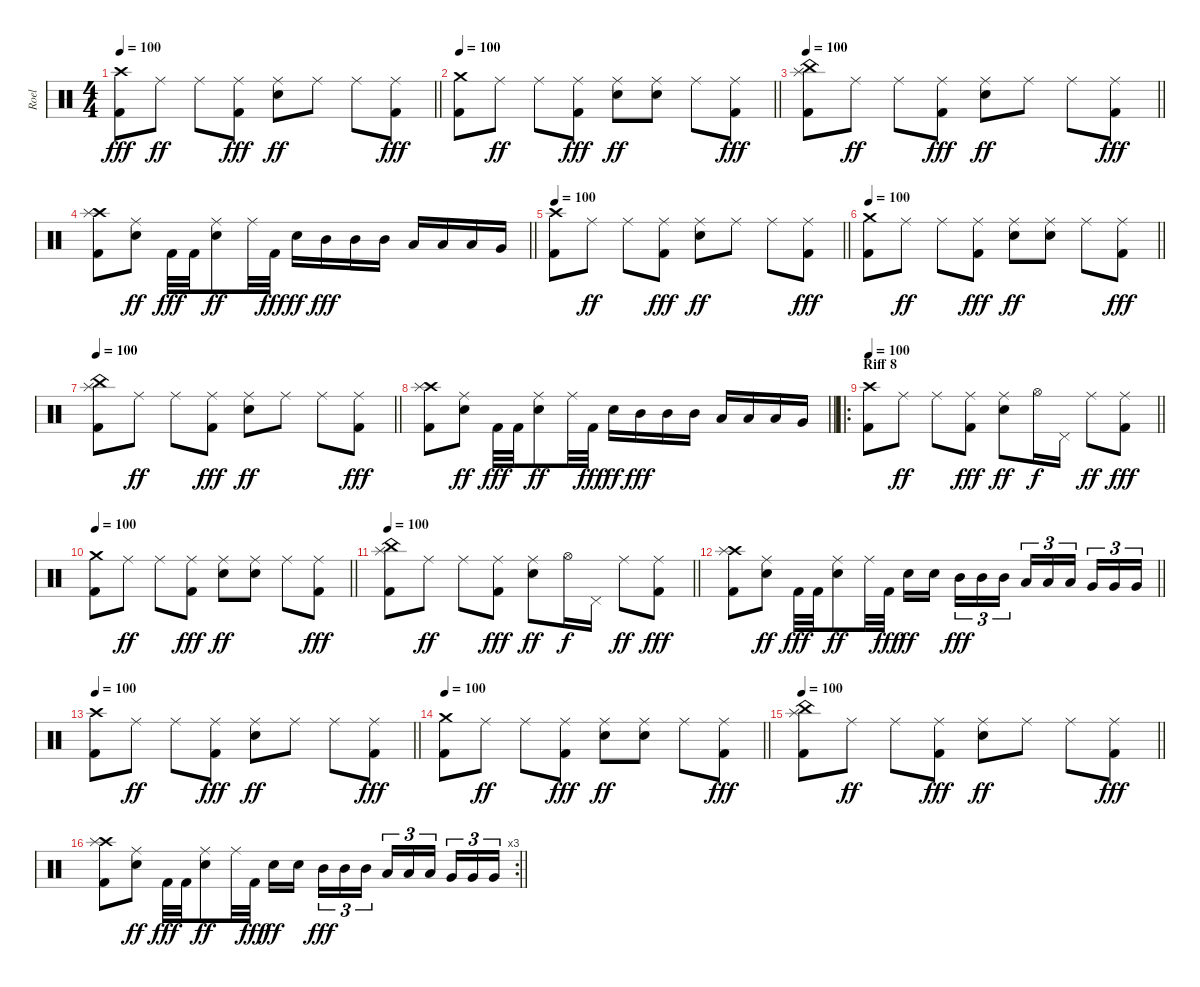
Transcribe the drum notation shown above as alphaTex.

\track ("Roel" "Roel") {instrument percussion}
\staff {score}
\articulation defaults
\ts (4 4)
\tempo 100
\clef neutral
\barLineRight lightlight
\ks c
("Crash high (hit)" "Kick (hit) 2").8{dy fff} "Ride (middle)".8{dy ff} "Ride (middle)".8 ("Ride (middle)" "Kick (hit) 2").8{dy fff} ("Ride (middle)" "Snare (hit) 2").8{dy ff} "Ride (middle)".8 "Ride (middle)".8 ("Ride (middle)" "Kick (hit) 2").8{dy fff} |
\tempo 100
\barLineRight lightlight
("Crash medium (hit)" "Kick (hit) 2").8 "Ride (middle)".8{dy ff} "Ride (middle)".8 ("Ride (middle)" "Kick (hit) 2").8{dy fff} ("Ride (middle)" "Snare (hit) 2").8{dy ff} ("Ride (middle)" "Snare (hit) 2").8 "Ride (middle)".8 ("Ride (middle)" "Kick (hit) 2").8{dy fff} |
\tempo 100
\barLineRight lightlight
("China (hit)" "Splash (hit)" "Kick (hit) 2").8 "Ride (middle)".8{dy ff} "Ride (middle)".8 ("Ride (middle)" "Kick (hit) 2").8{dy fff} ("Ride (middle)" "Snare (hit) 2").8{dy ff} "Ride (middle)".8 "Ride (middle)".8 ("Ride (middle)" "Kick (hit) 2").8{dy fff} |
\barLineRight lightlight
("Crash high (hit)" "Splash (hit)" "Kick (hit) 2").8 ("Ride (middle)" "Snare (hit) 2").8{dy ff} "Kick (hit) 2".32{dy fff} "Kick (hit) 2".32 ("Ride (middle)" "Snare (hit) 2").8{dy ff} "Ride (middle)".32 "Kick (hit) 2".32{dy fff} "Snare (hit) 2".16{dy ff} "Mid Tom (hit)".16{dy fff} "Mid Tom (hit)".16 "Mid Tom (hit)".16 "Low Tom (hit)".16 "Low Tom (hit)".16 "Low Tom (hit)".16 "Very Low Tom (hit)".16 |
\tempo 100
\barLineRight lightlight
("Crash high (hit)" "Kick (hit) 2").8 "Ride (middle)".8{dy ff} "Ride (middle)".8 ("Ride (middle)" "Kick (hit) 2").8{dy fff} ("Ride (middle)" "Snare (hit) 2").8{dy ff} "Ride (middle)".8 "Ride (middle)".8 ("Ride (middle)" "Kick (hit) 2").8{dy fff} |
\tempo 100
\barLineRight lightlight
("Crash medium (hit)" "Kick (hit) 2").8 "Ride (middle)".8{dy ff} "Ride (middle)".8 ("Ride (middle)" "Kick (hit) 2").8{dy fff} ("Ride (middle)" "Snare (hit) 2").8{dy ff} ("Ride (middle)" "Snare (hit) 2").8 "Ride (middle)".8 ("Ride (middle)" "Kick (hit) 2").8{dy fff} |
\tempo 100
\barLineRight lightlight
("China (hit)" "Splash (hit)" "Kick (hit) 2").8 "Ride (middle)".8{dy ff} "Ride (middle)".8 ("Ride (middle)" "Kick (hit) 2").8{dy fff} ("Ride (middle)" "Snare (hit) 2").8{dy ff} "Ride (middle)".8 "Ride (middle)".8 ("Ride (middle)" "Kick (hit) 2").8{dy fff} |
\barLineRight lightlight
("Crash high (hit)" "Splash (hit)" "Kick (hit) 2").8 ("Ride (middle)" "Snare (hit) 2").8{dy ff} "Kick (hit) 2".32{dy fff} "Kick (hit) 2".32 ("Ride (middle)" "Snare (hit) 2").8{dy ff} "Ride (middle)".32 "Kick (hit) 2".32{dy fff} "Snare (hit) 2".16{dy ff} "Mid Tom (hit)".16{dy fff} "Mid Tom (hit)".16 "Mid Tom (hit)".16 "Low Tom (hit)".16 "Low Tom (hit)".16 "Low Tom (hit)".16 "Very Low Tom (hit)".16 |
\ro
\section ("" "Riff 8")
\tempo 100
\barLineRight lightlight
("Crash high (hit)" "Kick (hit) 2").8 "Ride (middle)".8{dy ff} "Ride (middle)".8 ("Ride (middle)" "Kick (hit) 2").8{dy fff} ("Ride (middle)" "Snare (hit) 2").8{dy ff} "Hi-Hat (open)".16{dy f} "Pedal Hi-Hat (hit)".16 "Ride (middle)".8{dy ff} ("Ride (middle)" "Kick (hit) 2").8{dy fff} |
\tempo 100
\barLineRight lightlight
("Crash medium (hit)" "Kick (hit) 2").8 "Ride (middle)".8{dy ff} "Ride (middle)".8 ("Ride (middle)" "Kick (hit) 2").8{dy fff} ("Ride (middle)" "Snare (hit) 2").8{dy ff} ("Ride (middle)" "Snare (hit) 2").8 "Ride (middle)".8 ("Ride (middle)" "Kick (hit) 2").8{dy fff} |
\tempo 100
\barLineRight lightlight
("China (hit)" "Splash (hit)" "Kick (hit) 2").8 "Ride (middle)".8{dy ff} "Ride (middle)".8 ("Ride (middle)" "Kick (hit) 2").8{dy fff} ("Ride (middle)" "Snare (hit) 2").8{dy ff} "Hi-Hat (open)".16{dy f} "Pedal Hi-Hat (hit)".16 "Ride (middle)".8{dy ff} ("Ride (middle)" "Kick (hit) 2").8{dy fff} |
\barLineRight lightlight
("Crash high (hit)" "Splash (hit)" "Kick (hit) 2").8 ("Ride (middle)" "Snare (hit) 2").8{dy ff} "Kick (hit) 2".32{dy fff} "Kick (hit) 2".32 ("Ride (middle)" "Snare (hit) 2").8{dy ff} "Ride (middle)".32 "Kick (hit) 2".32{dy fff} "Snare (hit) 2".16{dy ff} "Snare (hit) 2".16{beam splitsecondary} "Mid Tom (hit)".16{tu (3 2) dy fff} "Mid Tom (hit)".16{tu (3 2)} "Mid Tom (hit)".16{tu (3 2)} "Low Tom (hit)".16{tu (3 2)} "Low Tom (hit)".16{tu (3 2)} "Low Tom (hit)".16{tu (3 2) beam splitsecondary} "Very Low Tom (hit)".16{tu (3 2)} "Very Low Tom (hit)".16{tu (3 2)} "Very Low Tom (hit)".16{tu (3 2)} |
\tempo 100
\barLineRight lightlight
("Crash high (hit)" "Kick (hit) 2").8 "Ride (middle)".8{dy ff} "Ride (middle)".8 ("Ride (middle)" "Kick (hit) 2").8{dy fff} ("Ride (middle)" "Snare (hit) 2").8{dy ff} "Ride (middle)".8 "Ride (middle)".8 ("Ride (middle)" "Kick (hit) 2").8{dy fff} |
\tempo 100
\barLineRight lightlight
("Crash medium (hit)" "Kick (hit) 2").8 "Ride (middle)".8{dy ff} "Ride (middle)".8 ("Ride (middle)" "Kick (hit) 2").8{dy fff} ("Ride (middle)" "Snare (hit) 2").8{dy ff} ("Ride (middle)" "Snare (hit) 2").8 "Ride (middle)".8 ("Ride (middle)" "Kick (hit) 2").8{dy fff} |
\tempo 100
\barLineRight lightlight
("China (hit)" "Splash (hit)" "Kick (hit) 2").8 "Ride (middle)".8{dy ff} "Ride (middle)".8 ("Ride (middle)" "Kick (hit) 2").8{dy fff} ("Ride (middle)" "Snare (hit) 2").8{dy ff} "Ride (middle)".8 "Ride (middle)".8 ("Ride (middle)" "Kick (hit) 2").8{dy fff} |
\rc 3
\barLineRight lightlight
("Crash high (hit)" "Splash (hit)" "Kick (hit) 2").8 ("Ride (middle)" "Snare (hit) 2").8{dy ff} "Kick (hit) 2".32{dy fff} "Kick (hit) 2".32 ("Ride (middle)" "Snare (hit) 2").8{dy ff} "Ride (middle)".32 "Kick (hit) 2".32{dy fff} "Snare (hit) 2".16{dy ff} "Snare (hit) 2".16{beam splitsecondary} "Mid Tom (hit)".16{tu (3 2) dy fff} "Mid Tom (hit)".16{tu (3 2)} "Mid Tom (hit)".16{tu (3 2)} "Low Tom (hit)".16{tu (3 2)} "Low Tom (hit)".16{tu (3 2)} "Low Tom (hit)".16{tu (3 2) beam splitsecondary} "Very Low Tom (hit)".16{tu (3 2)} "Very Low Tom (hit)".16{tu (3 2)} "Very Low Tom (hit)".16{tu (3 2)}
